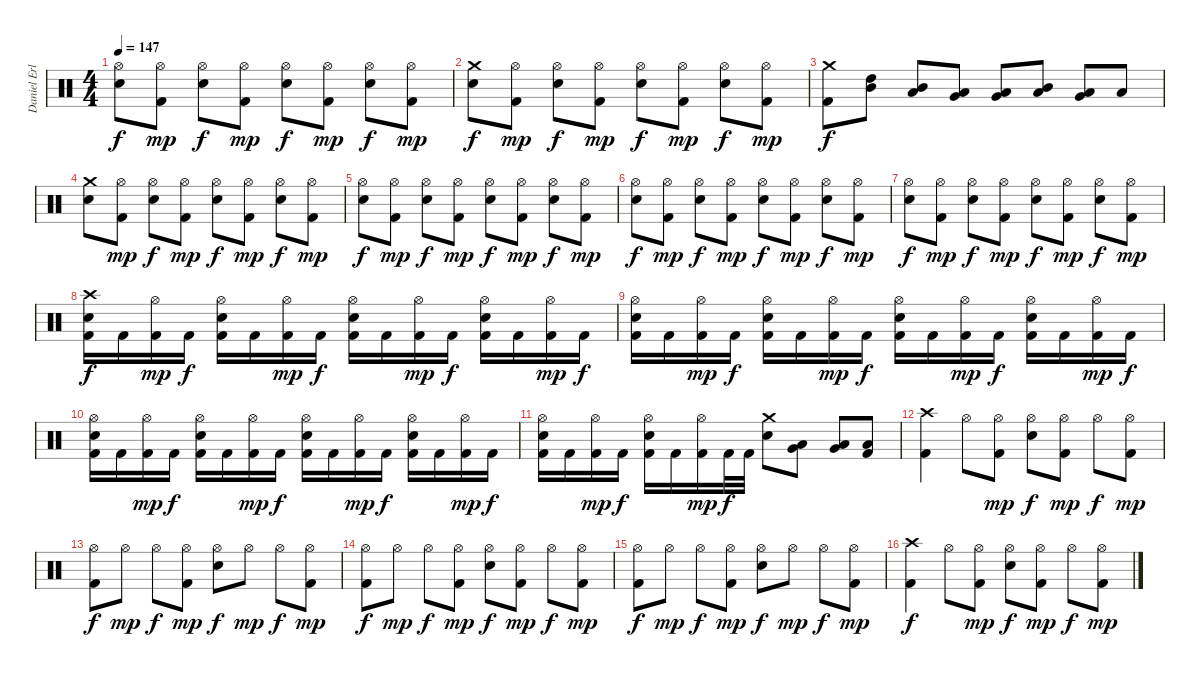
\track ("Daniel Erlandsson" "Daniel Erl") {instrument percussion}
\staff {score}
\articulation defaults
\ts (4 4)
\tempo 147
\clef neutral
\ks c
("Hi-Hat (open)" "Electric Snare (hit)").8{dy f} ("Hi-Hat (open)" "Kick (hit) 2").8{dy mp} ("Hi-Hat (open)" "Electric Snare (hit)").8{dy f} ("Hi-Hat (open)" "Kick (hit) 2").8{dy mp} ("Hi-Hat (open)" "Electric Snare (hit)").8{dy f} ("Hi-Hat (open)" "Kick (hit) 2").8{dy mp} ("Hi-Hat (open)" "Electric Snare (hit)").8{dy f} ("Hi-Hat (open)" "Kick (hit) 2").8{dy mp} |
("Crash medium (hit)" "Electric Snare (hit)").8{dy f} ("Hi-Hat (open)" "Kick (hit) 2").8{dy mp} ("Hi-Hat (open)" "Electric Snare (hit)").8{dy f} ("Hi-Hat (open)" "Kick (hit) 2").8{dy mp} ("Hi-Hat (open)" "Electric Snare (hit)").8{dy f} ("Hi-Hat (open)" "Kick (hit) 2").8{dy mp} ("Hi-Hat (open)" "Electric Snare (hit)").8{dy f} ("Hi-Hat (open)" "Kick (hit) 2").8{dy mp} |
("Crash medium (hit)" "Kick (hit) 2").8{dy f} ("High Tom (hit)" "Mid Tom (hit)").8 ("Mid Tom (hit)" "Low Tom (hit)").8 ("Low Tom (hit)" "Very Low Tom (hit)").8 ("Very Low Tom (hit)" "Low Floor Tom (hit)").8 ("Mid Tom (hit)" "Low Tom (hit)").8 ("Low Tom (hit)" "Very Low Tom (hit)").8 "Low Floor Tom (hit)".8 |
("Crash medium (hit)" "Electric Snare (hit)").8 ("Hi-Hat (open)" "Kick (hit) 2").8{dy mp} ("Hi-Hat (open)" "Electric Snare (hit)").8{dy f} ("Hi-Hat (open)" "Kick (hit) 2").8{dy mp} ("Hi-Hat (open)" "Electric Snare (hit)").8{dy f} ("Hi-Hat (open)" "Kick (hit) 2").8{dy mp} ("Hi-Hat (open)" "Electric Snare (hit)").8{dy f} ("Hi-Hat (open)" "Kick (hit) 2").8{dy mp} |
("Hi-Hat (open)" "Electric Snare (hit)").8{dy f} ("Hi-Hat (open)" "Kick (hit) 2").8{dy mp} ("Hi-Hat (open)" "Electric Snare (hit)").8{dy f} ("Hi-Hat (open)" "Kick (hit) 2").8{dy mp} ("Hi-Hat (open)" "Electric Snare (hit)").8{dy f} ("Hi-Hat (open)" "Kick (hit) 2").8{dy mp} ("Hi-Hat (open)" "Electric Snare (hit)").8{dy f} ("Hi-Hat (open)" "Kick (hit) 2").8{dy mp} |
("Hi-Hat (open)" "Electric Snare (hit)").8{dy f} ("Hi-Hat (open)" "Kick (hit) 2").8{dy mp} ("Hi-Hat (open)" "Electric Snare (hit)").8{dy f} ("Hi-Hat (open)" "Kick (hit) 2").8{dy mp} ("Hi-Hat (open)" "Electric Snare (hit)").8{dy f} ("Hi-Hat (open)" "Kick (hit) 2").8{dy mp} ("Hi-Hat (open)" "Electric Snare (hit)").8{dy f} ("Hi-Hat (open)" "Kick (hit) 2").8{dy mp} |
("Hi-Hat (open)" "Electric Snare (hit)").8{dy f} ("Hi-Hat (open)" "Kick (hit) 2").8{dy mp} ("Hi-Hat (open)" "Electric Snare (hit)").8{dy f} ("Hi-Hat (open)" "Kick (hit) 2").8{dy mp} ("Hi-Hat (open)" "Electric Snare (hit)").8{dy f} ("Hi-Hat (open)" "Kick (hit) 2").8{dy mp} ("Hi-Hat (open)" "Electric Snare (hit)").8{dy f} ("Hi-Hat (open)" "Kick (hit) 2").8{dy mp} |
("Crash high (hit)" "Electric Snare (hit)" "Kick (hit) 2").16{dy f} "Kick (hit) 2".16 ("Hi-Hat (open)" "Kick (hit) 2").16{dy mp} "Kick (hit) 2".16{dy f} ("Hi-Hat (open)" "Electric Snare (hit)" "Kick (hit) 2").16 "Kick (hit) 2".16 ("Hi-Hat (open)" "Kick (hit) 2").16{dy mp} "Kick (hit) 2".16{dy f} ("Hi-Hat (open)" "Electric Snare (hit)" "Kick (hit) 2").16 "Kick (hit) 2".16 ("Hi-Hat (open)" "Kick (hit) 2").16{dy mp} "Kick (hit) 2".16{dy f} ("Hi-Hat (open)" "Electric Snare (hit)" "Kick (hit) 2").16 "Kick (hit) 2".16 ("Hi-Hat (open)" "Kick (hit) 2").16{dy mp} "Kick (hit) 2".16{dy f} |
("Hi-Hat (open)" "Electric Snare (hit)" "Kick (hit) 2").16 "Kick (hit) 2".16 ("Hi-Hat (open)" "Kick (hit) 2").16{dy mp} "Kick (hit) 2".16{dy f} ("Hi-Hat (open)" "Electric Snare (hit)" "Kick (hit) 2").16 "Kick (hit) 2".16 ("Hi-Hat (open)" "Kick (hit) 2").16{dy mp} "Kick (hit) 2".16{dy f} ("Hi-Hat (open)" "Electric Snare (hit)" "Kick (hit) 2").16 "Kick (hit) 2".16 ("Hi-Hat (open)" "Kick (hit) 2").16{dy mp} "Kick (hit) 2".16{dy f} ("Hi-Hat (open)" "Electric Snare (hit)" "Kick (hit) 2").16 "Kick (hit) 2".16 ("Hi-Hat (open)" "Kick (hit) 2").16{dy mp} "Kick (hit) 2".16{dy f} |
("Hi-Hat (open)" "Electric Snare (hit)" "Kick (hit) 2").16 "Kick (hit) 2".16 ("Hi-Hat (open)" "Kick (hit) 2").16{dy mp} "Kick (hit) 2".16{dy f} ("Hi-Hat (open)" "Electric Snare (hit)" "Kick (hit) 2").16 "Kick (hit) 2".16 ("Hi-Hat (open)" "Kick (hit) 2").16{dy mp} "Kick (hit) 2".16{dy f} ("Hi-Hat (open)" "Electric Snare (hit)" "Kick (hit) 2").16 "Kick (hit) 2".16 ("Hi-Hat (open)" "Kick (hit) 2").16{dy mp} "Kick (hit) 2".16{dy f} ("Hi-Hat (open)" "Electric Snare (hit)" "Kick (hit) 2").16 "Kick (hit) 2".16 ("Hi-Hat (open)" "Kick (hit) 2").16{dy mp} "Kick (hit) 2".16{dy f} |
("Hi-Hat (open)" "Electric Snare (hit)" "Kick (hit) 2").16 "Kick (hit) 2".16 ("Hi-Hat (open)" "Kick (hit) 2").16{dy mp} "Kick (hit) 2".16{dy f} ("Hi-Hat (open)" "Electric Snare (hit)" "Kick (hit) 2").16 "Kick (hit) 2".16 ("Hi-Hat (open)" "Kick (hit) 2").16{dy mp} "Kick (hit) 2".32{dy f} "Kick (hit) 2".32 ("Crash medium (hit)" "Electric Snare (hit)").8 ("Low Tom (hit)" "Very Low Tom (hit)").8 ("Very Low Tom (hit)" "Low Floor Tom (hit)").8 ("Low Floor Tom (hit)" "Kick (hit) 2").8 |
("Crash high (hit)" "Kick (hit) 2").4 "Hi-Hat (open)".8 ("Hi-Hat (open)" "Kick (hit) 2").8{dy mp} ("Hi-Hat (open)" "Electric Snare (hit)").8{dy f} ("Hi-Hat (open)" "Kick (hit) 2").8{dy mp} "Hi-Hat (open)".8{dy f} ("Hi-Hat (open)" "Kick (hit) 2").8{dy mp} |
("Hi-Hat (open)" "Kick (hit) 2").8{dy f} "Hi-Hat (open)".8{dy mp} "Hi-Hat (open)".8{dy f} ("Hi-Hat (open)" "Kick (hit) 2").8{dy mp} ("Hi-Hat (open)" "Electric Snare (hit)").8{dy f} "Hi-Hat (open)".8{dy mp} "Hi-Hat (open)".8{dy f} ("Hi-Hat (open)" "Kick (hit) 2").8{dy mp} |
("Hi-Hat (open)" "Kick (hit) 2").8{dy f} "Hi-Hat (open)".8{dy mp} "Hi-Hat (open)".8{dy f} ("Hi-Hat (open)" "Kick (hit) 2").8{dy mp} ("Hi-Hat (open)" "Electric Snare (hit)").8{dy f} ("Hi-Hat (open)" "Kick (hit) 2").8{dy mp} "Hi-Hat (open)".8{dy f} ("Hi-Hat (open)" "Kick (hit) 2").8{dy mp} |
("Hi-Hat (open)" "Kick (hit) 2").8{dy f} "Hi-Hat (open)".8{dy mp} "Hi-Hat (open)".8{dy f} ("Hi-Hat (open)" "Kick (hit) 2").8{dy mp} ("Hi-Hat (open)" "Electric Snare (hit)").8{dy f} "Hi-Hat (open)".8{dy mp} "Hi-Hat (open)".8{dy f} ("Hi-Hat (open)" "Kick (hit) 2").8{dy mp} |
("Crash high (hit)" "Kick (hit) 2").4{dy f} "Hi-Hat (open)".8 ("Hi-Hat (open)" "Kick (hit) 2").8{dy mp} ("Hi-Hat (open)" "Electric Snare (hit)").8{dy f} ("Hi-Hat (open)" "Kick (hit) 2").8{dy mp} "Hi-Hat (open)".8{dy f} ("Hi-Hat (open)" "Kick (hit) 2").8{dy mp}
